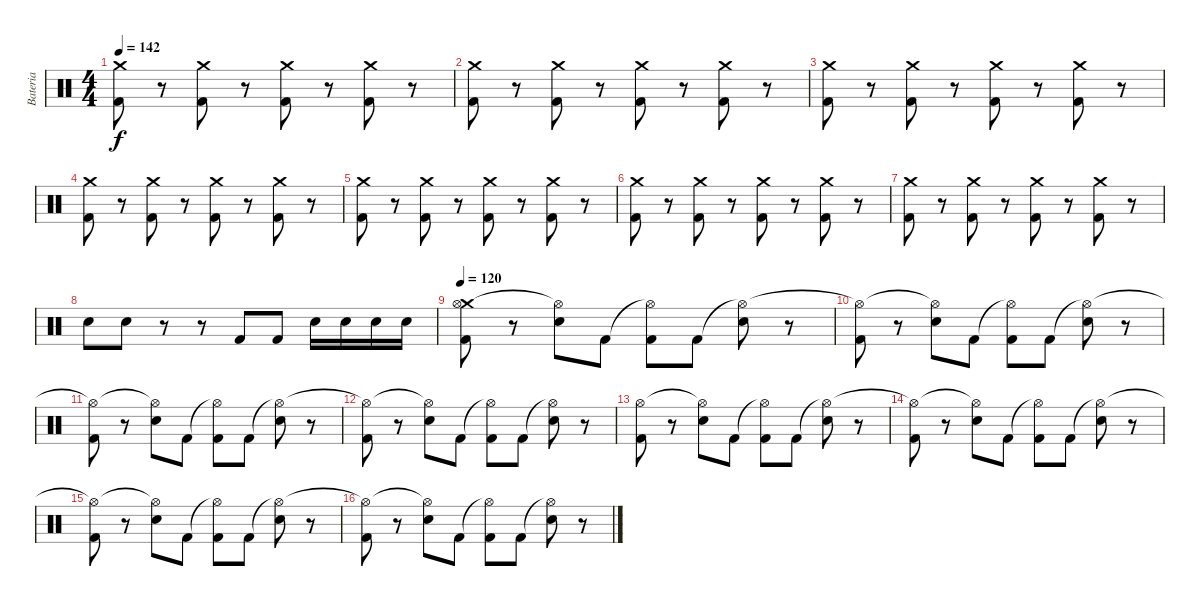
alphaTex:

\track ("Bateria" "Bateria") {instrument percussion}
\staff {score}
\articulation defaults
\ts (4 4)
\tempo 142
\clef neutral
\ks c
("Crash medium (hit)" "Kick (hit) 2").8{dy f} r.8 ("Crash medium (hit)" "Kick (hit) 2").8 r.8 ("Crash medium (hit)" "Kick (hit) 2").8 r.8 ("Crash medium (hit)" "Kick (hit) 2").8 r.8 |
("Crash medium (hit)" "Kick (hit) 2").8 r.8 ("Crash medium (hit)" "Kick (hit) 2").8 r.8 ("Crash medium (hit)" "Kick (hit) 2").8 r.8 ("Crash medium (hit)" "Kick (hit) 2").8 r.8 |
("Crash medium (hit)" "Kick (hit) 2").8 r.8 ("Crash medium (hit)" "Kick (hit) 2").8 r.8 ("Crash medium (hit)" "Kick (hit) 2").8 r.8 ("Crash medium (hit)" "Kick (hit) 2").8 r.8 |
("Crash medium (hit)" "Kick (hit) 2").8 r.8 ("Crash medium (hit)" "Kick (hit) 2").8 r.8 ("Crash medium (hit)" "Kick (hit) 2").8 r.8 ("Crash medium (hit)" "Kick (hit) 2").8 r.8 |
("Crash medium (hit)" "Kick (hit) 2").8 r.8 ("Crash medium (hit)" "Kick (hit) 2").8 r.8 ("Crash medium (hit)" "Kick (hit) 2").8 r.8 ("Crash medium (hit)" "Kick (hit) 2").8 r.8 |
("Crash medium (hit)" "Kick (hit) 2").8 r.8 ("Crash medium (hit)" "Kick (hit) 2").8 r.8 ("Crash medium (hit)" "Kick (hit) 2").8 r.8 ("Crash medium (hit)" "Kick (hit) 2").8 r.8 |
("Crash medium (hit)" "Kick (hit) 2").8 r.8 ("Crash medium (hit)" "Kick (hit) 2").8 r.8 ("Crash medium (hit)" "Kick (hit) 2").8 r.8 ("Crash medium (hit)" "Kick (hit) 2").8 r.8 |
"Electric Snare (hit)".8 "Electric Snare (hit)".8 r.8 r.8 "Kick (hit) 2".8 "Kick (hit) 2".8 "Electric Snare (hit)".16 "Electric Snare (hit)".16 "Electric Snare (hit)".16 "Electric Snare (hit)".16 |
\tempo 120
("Crash medium (hit)" "Hi-Hat (open)" "Kick (hit) 2").8 r.8 ("Hi-Hat (open)"{t} "Electric Snare (hit)").8 "Kick (hit) 2".8 ("Hi-Hat (open)"{t} "Kick (hit) 2").8 "Kick (hit) 2".8 ("Hi-Hat (open)"{t} "Electric Snare (hit)").8 r.8 |
("Hi-Hat (open)"{t} "Kick (hit) 2").8 r.8 ("Hi-Hat (open)"{t} "Electric Snare (hit)").8 "Kick (hit) 2".8 ("Hi-Hat (open)"{t} "Kick (hit) 2").8 "Kick (hit) 2".8 ("Hi-Hat (open)"{t} "Electric Snare (hit)").8 r.8 |
("Hi-Hat (open)"{t} "Kick (hit) 2").8 r.8 ("Hi-Hat (open)"{t} "Electric Snare (hit)").8 "Kick (hit) 2".8 ("Hi-Hat (open)"{t} "Kick (hit) 2").8 "Kick (hit) 2".8 ("Hi-Hat (open)"{t} "Electric Snare (hit)").8 r.8 |
("Hi-Hat (open)"{t} "Kick (hit) 2").8 r.8 ("Hi-Hat (open)"{t} "Electric Snare (hit)").8 "Kick (hit) 2".8 ("Hi-Hat (open)"{t} "Kick (hit) 2").8 "Kick (hit) 2".8 ("Hi-Hat (open)"{t} "Electric Snare (hit)").8 r.8 |
("Hi-Hat (open)" "Kick (hit) 2").8 r.8 ("Hi-Hat (open)"{t} "Electric Snare (hit)").8 "Kick (hit) 2".8 ("Hi-Hat (open)"{t} "Kick (hit) 2").8 "Kick (hit) 2".8 ("Hi-Hat (open)"{t} "Electric Snare (hit)").8 r.8 |
("Hi-Hat (open)"{t} "Kick (hit) 2").8 r.8 ("Hi-Hat (open)"{t} "Electric Snare (hit)").8 "Kick (hit) 2".8 ("Hi-Hat (open)"{t} "Kick (hit) 2").8 "Kick (hit) 2".8 ("Hi-Hat (open)"{t} "Electric Snare (hit)").8 r.8 |
("Hi-Hat (open)"{t} "Kick (hit) 2").8 r.8 ("Hi-Hat (open)"{t} "Electric Snare (hit)").8 "Kick (hit) 2".8 ("Hi-Hat (open)"{t} "Kick (hit) 2").8 "Kick (hit) 2".8 ("Hi-Hat (open)"{t} "Electric Snare (hit)").8 r.8 |
("Hi-Hat (open)"{t} "Kick (hit) 2").8 r.8 ("Hi-Hat (open)"{t} "Electric Snare (hit)").8 "Kick (hit) 2".8 ("Hi-Hat (open)"{t} "Kick (hit) 2").8 "Kick (hit) 2".8 ("Hi-Hat (open)"{t} "Electric Snare (hit)").8 r.8
